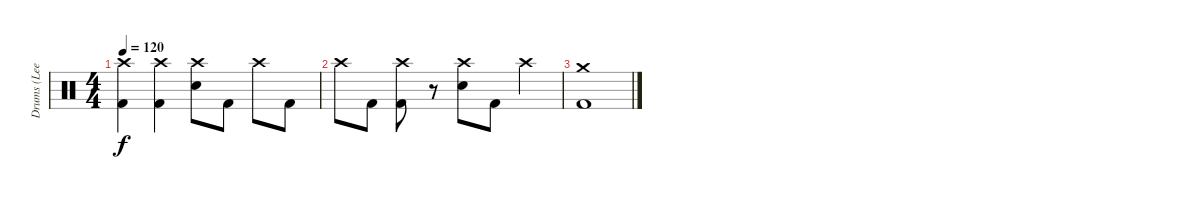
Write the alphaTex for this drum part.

\track ("Drums (Lee)" "Drums (Lee") {instrument percussion}
\staff {score}
\articulation defaults
\ts (4 4)
\tempo 120
\clef neutral
\ks c
("Crash high (hit)" "Kick (hit) 2").4{dy f} ("Crash high (hit)" "Kick (hit) 2").4 ("Crash high (hit)" "Electric Snare (hit)").8 "Kick (hit) 2".8 "Crash high (hit)".8 "Kick (hit) 2".8 |
"Crash high (hit)".8 "Kick (hit) 2".8 ("Crash high (hit)" "Kick (hit) 2").8 r.8 ("Crash high (hit)" "Electric Snare (hit)").8 "Kick (hit) 2".8 "Crash high (hit)".4 |
("Crash medium (hit)" "Kick (hit) 2").1
